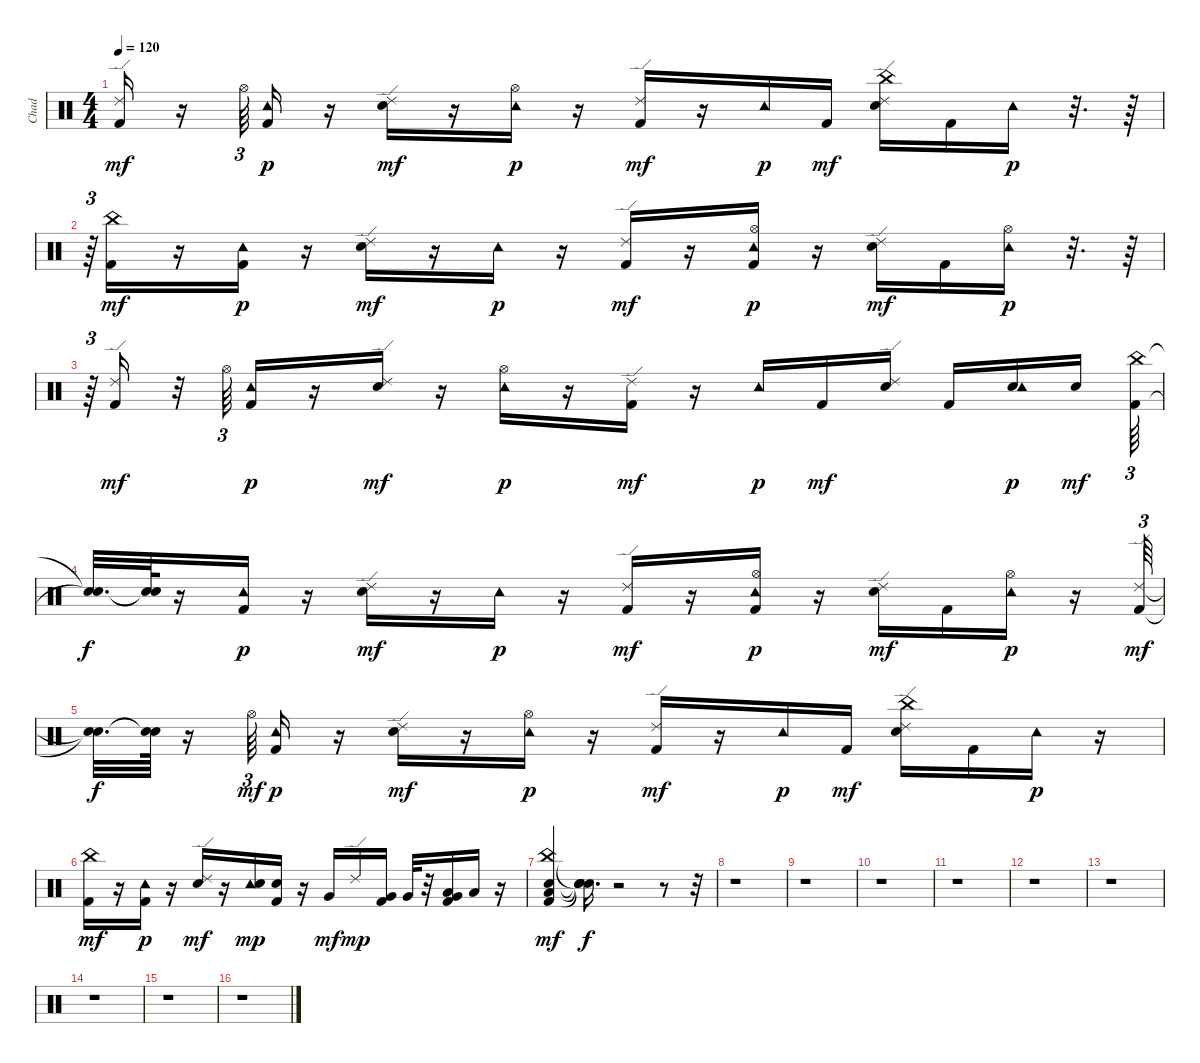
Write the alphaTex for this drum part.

\track ("Chad" "Chad") {instrument percussion}
\staff {score}
\articulation defaults
\ts (4 4)
\tempo 120
\clef neutral
\ks c
("Kick (hit) 2" "Ride (edge) 2").16{dy mf} r.16 "Hi-Hat (open)".64{tu (3 2)} ("Kick (hit) 2" "Tambourine (hit)").16{dy p} r.16 ("Snare (hit) 2" "Ride (edge) 2").16{dy mf} r.16 ("Hi-Hat (open)" "Tambourine (hit)").16{dy p} r.16 ("Kick (hit) 2" "Ride (edge) 2").16{dy mf} r.16 "Tambourine (hit)".16{dy p} "Kick (hit) 2".16{dy mf} ("Snare (hit) 2" "China (hit)" "Ride (edge) 2").16 "Kick (hit) 2".16 "Tambourine (hit)".16{dy p} r.32{d} r.64 |
r.64{tu (3 2)} ("Kick (hit) 2" "China (hit)").16{dy mf} r.16 ("Kick (hit) 2" "Tambourine (hit)").16{dy p} r.16 ("Snare (hit) 2" "Ride (edge) 2").16{dy mf} r.16 "Tambourine (hit)".16{dy p} r.16 ("Kick (hit) 2" "Ride (edge) 2").16{dy mf} r.16 ("Kick (hit) 2" "Hi-Hat (open)" "Tambourine (hit)").16{dy p} r.16 ("Snare (hit) 2" "Ride (edge) 2").16{dy mf} "Kick (hit) 2".16 ("Hi-Hat (open)" "Tambourine (hit)").16{dy p} r.32{d} r.64 |
r.64{tu (3 2)} ("Kick (hit) 2" "Ride (edge) 2").16{dy mf} r.32 "Hi-Hat (open)".64{tu (3 2)} ("Kick (hit) 2" "Tambourine (hit)").16{dy p} r.16 ("Snare (hit) 2" "Ride (edge) 2").16{dy mf} r.16 ("Hi-Hat (open)" "Tambourine (hit)").16{dy p} r.16 ("Kick (hit) 2" "Ride (edge) 2").16{dy mf} r.16 "Tambourine (hit)".16{dy p} "Kick (hit) 2".16{dy mf} ("Snare (hit) 2" "Ride (edge) 2").16 "Kick (hit) 2".16 ("Snare (hit) 2" "Tambourine (hit)").16{dy p} "Snare (hit) 2".16{dy mf beam splitsecondary} ("Kick (hit) 2" "China (hit)").64{tu (3 2)} |
("Snare (hit)"{t} "Snare (hit)"{t}).32{d dy f} ("Snare (hit)"{t} "Snare (hit)"{t}).64 r.16 ("Kick (hit) 2" "Tambourine (hit)").16{dy p} r.16 ("Snare (hit) 2" "Ride (edge) 2").16{dy mf} r.16 "Tambourine (hit)".16{dy p} r.16 ("Kick (hit) 2" "Ride (edge) 2").16{dy mf} r.16 ("Kick (hit) 2" "Hi-Hat (open)" "Tambourine (hit)").16{dy p} r.16 ("Snare (hit) 2" "Ride (edge) 2").16{dy mf} "Kick (hit) 2".16 ("Hi-Hat (open)" "Tambourine (hit)").16{dy p} r.16 ("Kick (hit) 2" "Ride (edge) 2").64{tu (3 2) dy mf} |
("Snare (hit)"{t} "Snare (hit)"{t}).32{d dy f} ("Snare (hit)"{t} "Snare (hit)"{t}).64 r.16 "Hi-Hat (open)".64{tu (3 2) dy mf} ("Kick (hit) 2" "Tambourine (hit)").16{dy p} r.16 ("Snare (hit) 2" "Ride (edge) 2").16{dy mf} r.16 ("Hi-Hat (open)" "Tambourine (hit)").16{dy p} r.16 ("Kick (hit) 2" "Ride (edge) 2").16{dy mf} r.16 "Tambourine (hit)".16{dy p} "Kick (hit) 2".16{dy mf} ("Snare (hit) 2" "China (hit)" "Ride (edge) 2").16 "Kick (hit) 2".16 "Tambourine (hit)".16{dy p} r.16 |
("Kick (hit) 2" "China (hit)").16{dy mf} r.16 ("Kick (hit) 2" "Tambourine (hit)").16{dy p} r.16 ("Snare (hit) 2" "Ride (edge) 2").16{dy mf} r.16 ("Tambourine (hit)" "Snare (hit) 2").16{dy mp} ("Kick (hit) 2" "Snare (hit) 2").16 r.16 "Very Low Tom (hit)".16{dy mf} "Ride (edge) 2".16{dy mp} ("Kick (hit) 2" "Very Low Tom (hit)").16 "Very Low Tom (hit)".32 r.32 ("Kick (hit) 2" "Low Floor Tom (hit)" "Very Low Tom (hit)").16 "Low Floor Tom (hit)".16 r.16 |
("Kick (hit) 2" "Snare (hit) 2" "Low Floor Tom (hit)" "China (hit)").4{dy mf} ("Snare (hit)"{t} "Snare (hit)"{t} "Snare (hit)"{t} "Snare (hit)"{t}).16{d dy f} r.2 r.8 r.32 |
r.1 |
r.1 |
r.1 |
r.1 |
r.1 |
r.1 |
r.1 |
r.1 |
r.1
